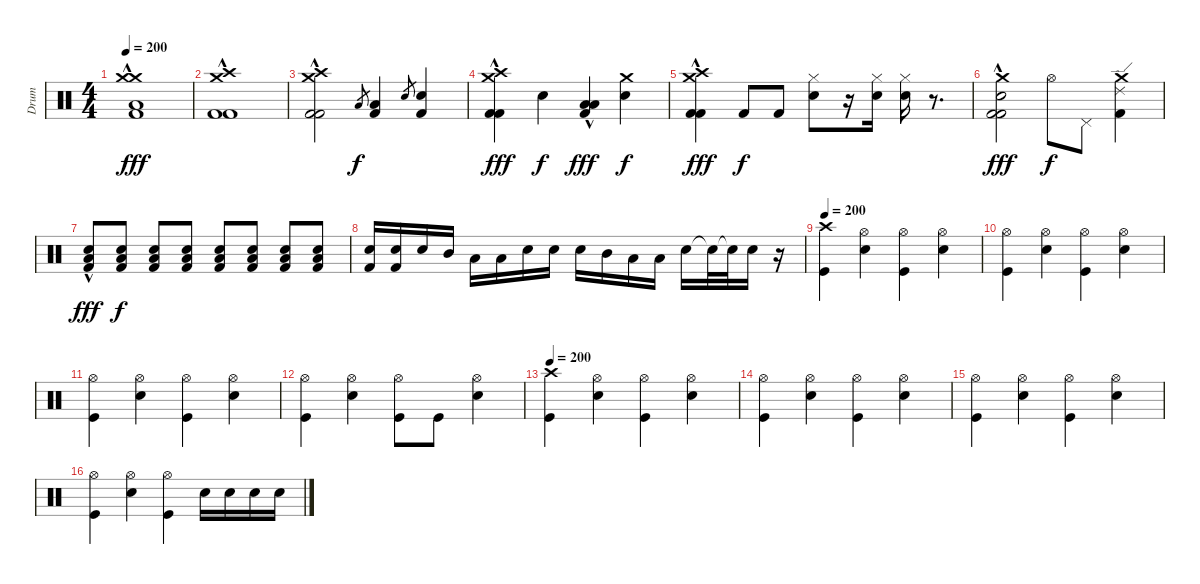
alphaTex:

\track ("Drum" "Drum") {instrument percussion}
\staff {score}
\articulation defaults
\ts (4 4)
\tempo 200
\clef neutral
\ks c
("Crash medium (hit)" "Crash medium (hit)" "Kick (hit) 2"{hac} "Low Tom (hit)"{hac}).1{dy fff} |
("Crash high (hit)" "Crash medium (hit)" "Kick (hit) 2" "Kick (hit) 2"{hac}).1 |
("Crash medium (hit)" "Crash high (hit)" "Kick (hit) 2" "Kick (hit) 2"{hac}).2 "Low Tom (hit)".8{gr dy f} ("Low Tom (hit)" "Kick (hit) 2").4 "Electric Snare (hit)".8{gr} ("Electric Snare (hit)" "Kick (hit) 2").4 |
("Crash medium (hit)" "Crash high (hit)" "Kick (hit) 2" "Kick (hit) 2"{hac}).4{dy fff} "Electric Snare (hit)".4{dy f} ("Low Floor Tom (hit)"{hac} "Low Tom (hit)"{hac} "Kick (hit) 2"{hac}).4{dy fff} ("Crash medium (hit)" "Electric Snare (hit)").4{dy f} |
("Crash medium (hit)" "Crash high (hit)" "Kick (hit) 2" "Kick (hit) 2"{hac}).4{dy fff} "Kick (hit) 2".8{dy f} "Kick (hit) 2".8 ("Hi-Hat (closed)" "Electric Snare (hit)").8 r.16 ("Hi-Hat (closed)" "Electric Snare (hit)").16 ("Hi-Hat (closed)" "Electric Snare (hit)").16 r.8{d} |
("Crash medium (hit)" "Electric Snare (hit)" "Kick (hit) 2" "Kick (hit) 2"{hac}).2{dy fff} "Hi-Hat (open)".8{dy f} "Pedal Hi-Hat (hit)".8 ("Crash medium (hit)" "Ride (edge) 2" "Kick (hit) 2").4 |
("Electric Snare (hit)" "Low Tom (hit)" "Kick (hit) 2"{hac}).8{dy fff} ("Electric Snare (hit)" "Low Tom (hit)" "Kick (hit) 2").8{dy f} ("Electric Snare (hit)" "Low Tom (hit)" "Kick (hit) 2").8 ("Electric Snare (hit)" "Low Tom (hit)" "Kick (hit) 2").8 ("Electric Snare (hit)" "Low Tom (hit)" "Kick (hit) 2").8 ("Electric Snare (hit)" "Low Tom (hit)" "Kick (hit) 2").8 ("Electric Snare (hit)" "Low Tom (hit)" "Kick (hit) 2").8 ("Electric Snare (hit)" "Low Tom (hit)" "Kick (hit) 2").8 |
("Electric Snare (hit)" "Kick (hit) 2").16 ("Electric Snare (hit)" "Kick (hit) 2").16 "Electric Snare (hit)".16 "Mid Tom (hit)".16 "Low Tom (hit)".16 "Low Floor Tom (hit)".16 "Electric Snare (hit)".16 "Electric Snare (hit)".16 "Electric Snare (hit)".16 "Mid Tom (hit)".16 "Low Tom (hit)".16 "Low Floor Tom (hit)".16 "Electric Snare (hit)".16 "Electric Snare (hit)"{t}.32 "Electric Snare (hit)"{t}.32 "Electric Snare (hit)".16 r.16 |
\tempo 200
("Crash high (hit)" "Kick (hit)").4 ("Hi-Hat (open)" "Electric Snare (hit)").4 ("Hi-Hat (open)" "Kick (hit)").4 ("Hi-Hat (open)" "Electric Snare (hit)").4 |
("Hi-Hat (open)" "Kick (hit)").4 ("Hi-Hat (open)" "Electric Snare (hit)").4 ("Hi-Hat (open)" "Kick (hit)").4 ("Hi-Hat (open)" "Electric Snare (hit)").4 |
("Hi-Hat (open)" "Kick (hit)").4 ("Hi-Hat (open)" "Electric Snare (hit)").4 ("Hi-Hat (open)" "Kick (hit)").4 ("Hi-Hat (open)" "Electric Snare (hit)").4 |
("Hi-Hat (open)" "Kick (hit)").4 ("Hi-Hat (open)" "Electric Snare (hit)").4 ("Hi-Hat (open)" "Kick (hit)").8 "Kick (hit)".8 ("Hi-Hat (open)" "Electric Snare (hit)").4 |
\tempo 200
("Crash high (hit)" "Kick (hit)").4 ("Hi-Hat (open)" "Electric Snare (hit)").4 ("Hi-Hat (open)" "Kick (hit)").4 ("Hi-Hat (open)" "Electric Snare (hit)").4 |
("Hi-Hat (open)" "Kick (hit)").4 ("Hi-Hat (open)" "Electric Snare (hit)").4 ("Hi-Hat (open)" "Kick (hit)").4 ("Hi-Hat (open)" "Electric Snare (hit)").4 |
("Hi-Hat (open)" "Kick (hit)").4 ("Hi-Hat (open)" "Electric Snare (hit)").4 ("Hi-Hat (open)" "Kick (hit)").4 ("Hi-Hat (open)" "Electric Snare (hit)").4 |
("Hi-Hat (open)" "Kick (hit)").4 ("Hi-Hat (open)" "Electric Snare (hit)").4 ("Hi-Hat (open)" "Kick (hit)").4 "Electric Snare (hit)".16 "Electric Snare (hit)".16 "Electric Snare (hit)".16 "Electric Snare (hit)".16
